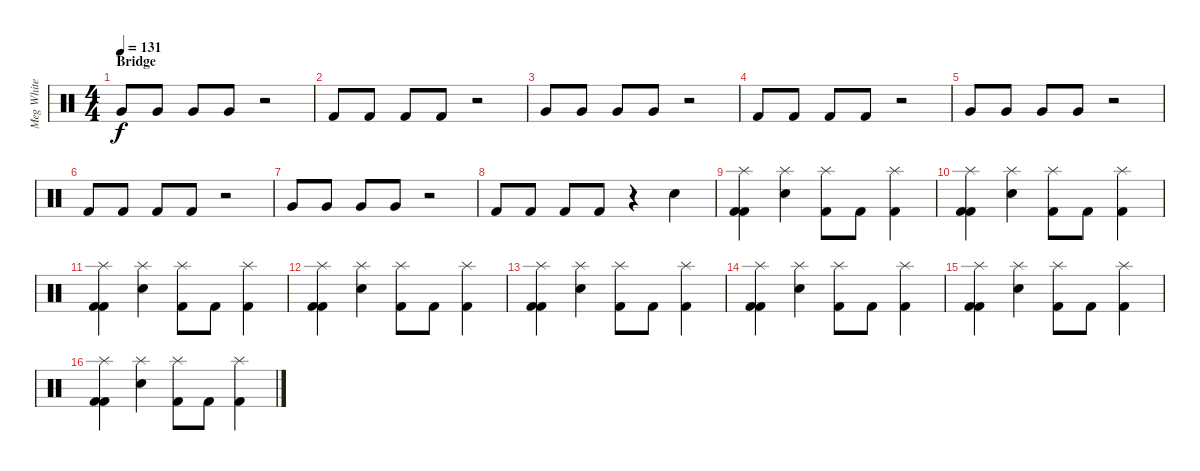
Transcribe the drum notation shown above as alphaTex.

\track ("Meg White" "Meg White") {instrument percussion}
\staff {score}
\articulation defaults
\ts (4 4)
\section ("" "Bridge")
\tempo 131
\clef neutral
\ks c "Very Low Tom (hit)".8{dy f} "Very Low Tom (hit)".8 "Very Low Tom (hit)".8 "Very Low Tom (hit)".8
r.2 |
"Kick (hit) 2".8 "Kick (hit) 2".8 "Kick (hit) 2".8 "Kick (hit) 2".8 r.2 |
"Very Low Tom (hit)".8 "Very Low Tom (hit)".8 "Very Low Tom (hit)".8 "Very Low Tom (hit)".8 r.2 |
"Kick (hit) 2".8 "Kick (hit) 2".8 "Kick (hit) 2".8 "Kick (hit) 2".8 r.2 |
"Very Low Tom (hit)".8 "Very Low Tom (hit)".8 "Very Low Tom (hit)".8 "Very Low Tom (hit)".8 r.2 |
"Kick (hit) 2".8 "Kick (hit) 2".8 "Kick (hit) 2".8 "Kick (hit) 2".8 r.2 |
"Very Low Tom (hit)".8 "Very Low Tom (hit)".8 "Very Low Tom (hit)".8 "Very Low Tom (hit)".8 r.2 |
"Kick (hit) 2".8 "Kick (hit) 2".8 "Kick (hit) 2".8 "Kick (hit) 2".8 r.4 "Electric Snare (hit)".4 |
("Splash (hit)" "Kick (hit) 2" "Kick (hit) 2").4 ("Splash (hit)" "Snare (hit) 2").4 ("Splash (hit)" "Kick (hit) 2").8 "Kick (hit) 2".8 ("Splash (hit)" "Kick (hit) 2").4 |
("Splash (hit)" "Kick (hit) 2" "Kick (hit) 2").4 ("Splash (hit)" "Snare (hit) 2").4 ("Splash (hit)" "Kick (hit) 2").8 "Kick (hit) 2".8 ("Splash (hit)" "Kick (hit) 2").4 |
("Splash (hit)" "Kick (hit) 2" "Kick (hit) 2").4 ("Splash (hit)" "Snare (hit) 2").4 ("Splash (hit)" "Kick (hit) 2").8 "Kick (hit) 2".8 ("Splash (hit)" "Kick (hit) 2").4 |
("Splash (hit)" "Kick (hit) 2" "Kick (hit) 2").4 ("Splash (hit)" "Snare (hit) 2").4 ("Splash (hit)" "Kick (hit) 2").8 "Kick (hit) 2".8 ("Splash (hit)" "Kick (hit) 2").4 |
("Splash (hit)" "Kick (hit) 2" "Kick (hit) 2").4 ("Splash (hit)" "Snare (hit) 2").4 ("Splash (hit)" "Kick (hit) 2").8 "Kick (hit) 2".8 ("Splash (hit)" "Kick (hit) 2").4 |
("Splash (hit)" "Kick (hit) 2" "Kick (hit) 2").4 ("Splash (hit)" "Snare (hit) 2").4 ("Splash (hit)" "Kick (hit) 2").8 "Kick (hit) 2".8 ("Splash (hit)" "Kick (hit) 2").4 |
("Splash (hit)" "Kick (hit) 2" "Kick (hit) 2").4 ("Splash (hit)" "Snare (hit) 2").4 ("Splash (hit)" "Kick (hit) 2").8 "Kick (hit) 2".8 ("Splash (hit)" "Kick (hit) 2").4 |
("Splash (hit)" "Kick (hit) 2" "Kick (hit) 2").4 ("Splash (hit)" "Snare (hit) 2").4 ("Splash (hit)" "Kick (hit) 2").8 "Kick (hit) 2".8 ("Splash (hit)" "Kick (hit) 2").4
